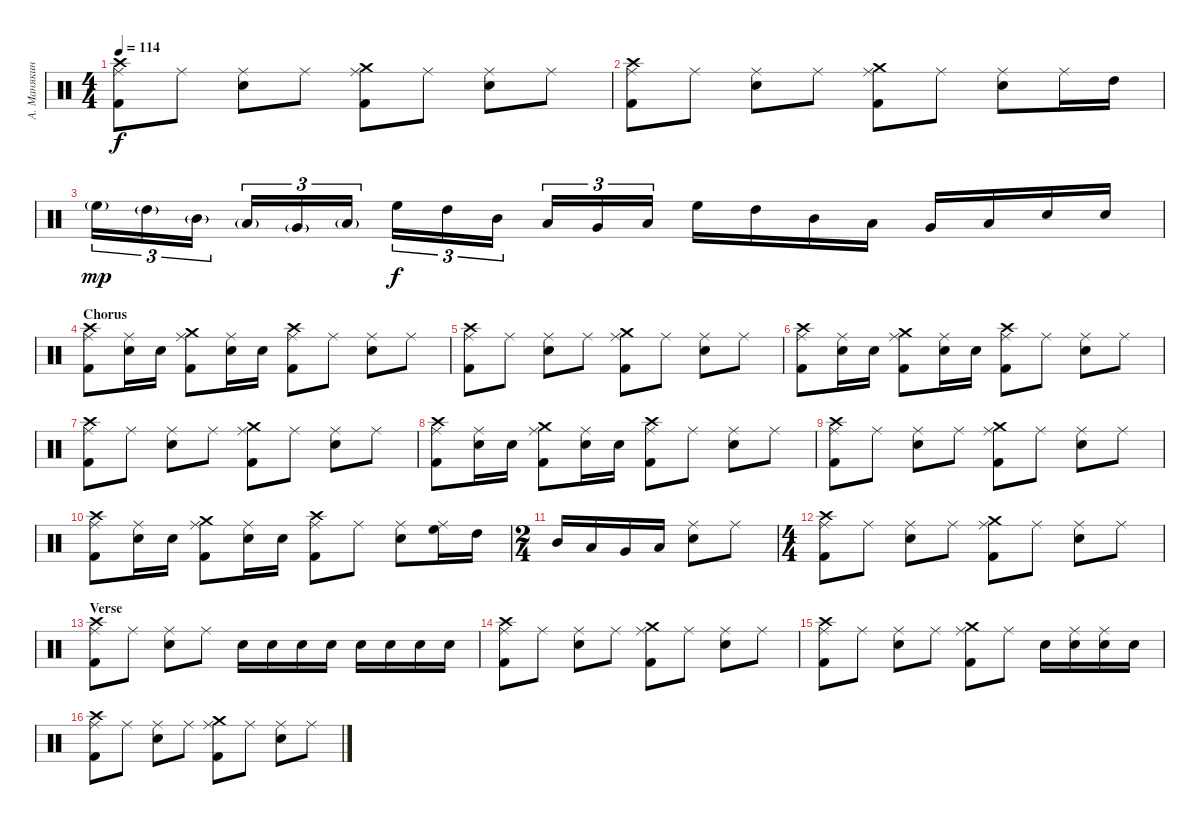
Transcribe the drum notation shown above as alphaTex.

\track ("А. Манякин" "А. Манякин") {instrument percussion}
\staff {score}
\articulation defaults
\ts (4 4)
\tempo 114
\clef neutral
\ks c
("Kick (hit) 2" "Crash high (hit)" "Ride (middle)").8{dy f} "Ride (middle)".8 ("Electric Snare (hit)" "Ride (middle)").8 "Ride (middle)".8 ("Kick (hit) 2" "Crash medium (hit)" "Ride (middle)").8 "Ride (middle)".8 ("Electric Snare (hit)" "Ride (middle)").8 "Ride (middle)".8 |
("Kick (hit) 2" "Crash high (hit)" "Ride (middle)").8 "Ride (middle)".8 ("Electric Snare (hit)" "Ride (middle)").8 "Ride (middle)".8 ("Kick (hit) 2" "Crash medium (hit)" "Ride (middle)").8 "Ride (middle)".8 ("Electric Snare (hit)" "Ride (middle)").8 "Ride (middle)".16 "High Tom (hit)".16 |
"High Floor Tom (hit)"{g}.16{tu (3 2) dy mp} "High Tom (hit)"{g}.16{tu (3 2)} "Mid Tom (hit)"{g}.16{tu (3 2)} "Low Tom (hit)"{g}.16{tu (3 2)} "Very Low Tom (hit)"{g}.16{tu (3 2)} "Low Floor Tom (hit)"{g}.16{tu (3 2)} "High Floor Tom (hit)".16{tu (3 2) dy f} "High Tom (hit)".16{tu (3 2)} "Mid Tom (hit)".16{tu (3 2)} "Low Tom (hit)".16{tu (3 2)} "Very Low Tom (hit)".16{tu (3 2)} "Low Floor Tom (hit)".16{tu (3 2)} "High Floor Tom (hit)".16 "High Tom (hit)".16 "Mid Tom (hit)".16 "Low Tom (hit)".16 "Very Low Tom (hit)".16 "Low Floor Tom (hit)".16 "Electric Snare (hit)".16 "Electric Snare (hit)".16 |
\section ("" "Chorus")
("Kick (hit) 2" "Crash high (hit)" "Ride (middle)").8 ("Electric Snare (hit)" "Ride (middle)").16 "Electric Snare (hit)".16 ("Kick (hit) 2" "Crash medium (hit)" "Ride (middle)").8 ("Electric Snare (hit)" "Ride (middle)").16 "Electric Snare (hit)".16 ("Kick (hit) 2" "Crash high (hit)" "Ride (middle)").8 "Ride (middle)".8 ("Electric Snare (hit)" "Ride (middle)").8 "Ride (middle)".8 |
("Kick (hit) 2" "Crash high (hit)" "Ride (middle)").8 "Ride (middle)".8 ("Electric Snare (hit)" "Ride (middle)").8 "Ride (middle)".8 ("Kick (hit) 2" "Crash medium (hit)" "Ride (middle)").8 "Ride (middle)".8 ("Electric Snare (hit)" "Ride (middle)").8 "Ride (middle)".8 |
("Kick (hit) 2" "Crash high (hit)" "Ride (middle)").8 ("Electric Snare (hit)" "Ride (middle)").16 "Electric Snare (hit)".16 ("Kick (hit) 2" "Crash medium (hit)" "Ride (middle)").8 ("Electric Snare (hit)" "Ride (middle)").16 "Electric Snare (hit)".16 ("Kick (hit) 2" "Crash high (hit)" "Ride (middle)").8 "Ride (middle)".8 ("Electric Snare (hit)" "Ride (middle)").8 "Ride (middle)".8 |
("Kick (hit) 2" "Crash high (hit)" "Ride (middle)").8 "Ride (middle)".8 ("Electric Snare (hit)" "Ride (middle)").8 "Ride (middle)".8 ("Kick (hit) 2" "Crash medium (hit)" "Ride (middle)").8 "Ride (middle)".8 ("Electric Snare (hit)" "Ride (middle)").8 "Ride (middle)".8 |
("Kick (hit) 2" "Crash high (hit)" "Ride (middle)").8 ("Electric Snare (hit)" "Ride (middle)").16 "Electric Snare (hit)".16 ("Kick (hit) 2" "Crash medium (hit)" "Ride (middle)").8 ("Electric Snare (hit)" "Ride (middle)").16 "Electric Snare (hit)".16 ("Kick (hit) 2" "Crash high (hit)" "Ride (middle)").8 "Ride (middle)".8 ("Electric Snare (hit)" "Ride (middle)").8 "Ride (middle)".8 |
("Kick (hit) 2" "Crash high (hit)" "Ride (middle)").8 "Ride (middle)".8 ("Electric Snare (hit)" "Ride (middle)").8 "Ride (middle)".8 ("Kick (hit) 2" "Crash medium (hit)" "Ride (middle)").8 "Ride (middle)".8 ("Electric Snare (hit)" "Ride (middle)").8 "Ride (middle)".8 |
("Kick (hit) 2" "Crash high (hit)" "Ride (middle)").8 ("Electric Snare (hit)" "Ride (middle)").16 "Electric Snare (hit)".16 ("Kick (hit) 2" "Crash medium (hit)" "Ride (middle)").8 ("Electric Snare (hit)" "Ride (middle)").16 "Electric Snare (hit)".16 ("Kick (hit) 2" "Crash high (hit)" "Ride (middle)").8 "Ride (middle)".8 ("Electric Snare (hit)" "Ride (middle)").8 ("High Floor Tom (hit)" "Ride (middle)").16 "High Tom (hit)".16 |
\ts (2 4)
"Mid Tom (hit)".16 "Low Tom (hit)".16 "Very Low Tom (hit)".16 "Low Floor Tom (hit)".16 ("Electric Snare (hit)" "Ride (middle)").8 "Ride (middle)".8 |
\ts (4 4)
("Kick (hit) 2" "Crash high (hit)" "Ride (middle)").8 "Ride (middle)".8 ("Electric Snare (hit)" "Ride (middle)").8 "Ride (middle)".8 ("Kick (hit) 2" "Crash medium (hit)" "Ride (middle)").8 "Ride (middle)".8 ("Electric Snare (hit)" "Ride (middle)").8 "Ride (middle)".8 |
\section ("" "Verse")
("Kick (hit) 2" "Crash high (hit)" "Ride (middle)").8 "Ride (middle)".8 ("Electric Snare (hit)" "Ride (middle)").8 "Ride (middle)".8 "Electric Snare (hit)".16 "Electric Snare (hit)".16 "Electric Snare (hit)".16 "Electric Snare (hit)".16 "Electric Snare (hit)".16 "Electric Snare (hit)".16 "Electric Snare (hit)".16 "Electric Snare (hit)".16 |
("Kick (hit) 2" "Crash high (hit)" "Ride (middle)").8 "Ride (middle)".8 ("Electric Snare (hit)" "Ride (middle)").8 "Ride (middle)".8 ("Kick (hit) 2" "Crash medium (hit)" "Ride (middle)").8 "Ride (middle)".8 ("Electric Snare (hit)" "Ride (middle)").8 "Ride (middle)".8 |
("Kick (hit) 2" "Crash high (hit)" "Ride (middle)").8 "Ride (middle)".8 ("Electric Snare (hit)" "Ride (middle)").8 "Ride (middle)".8 ("Kick (hit) 2" "Crash medium (hit)" "Ride (middle)").8 "Ride (middle)".8 "Electric Snare (hit)".16 ("Electric Snare (hit)" "Ride (middle)").16 ("Electric Snare (hit)" "Ride (middle)").16 "Electric Snare (hit)".16 |
("Kick (hit) 2" "Crash high (hit)" "Ride (middle)").8 "Ride (middle)".8 ("Electric Snare (hit)" "Ride (middle)").8 "Ride (middle)".8 ("Kick (hit) 2" "Crash medium (hit)" "Ride (middle)").8 "Ride (middle)".8 ("Electric Snare (hit)" "Ride (middle)").8 "Ride (middle)".8
